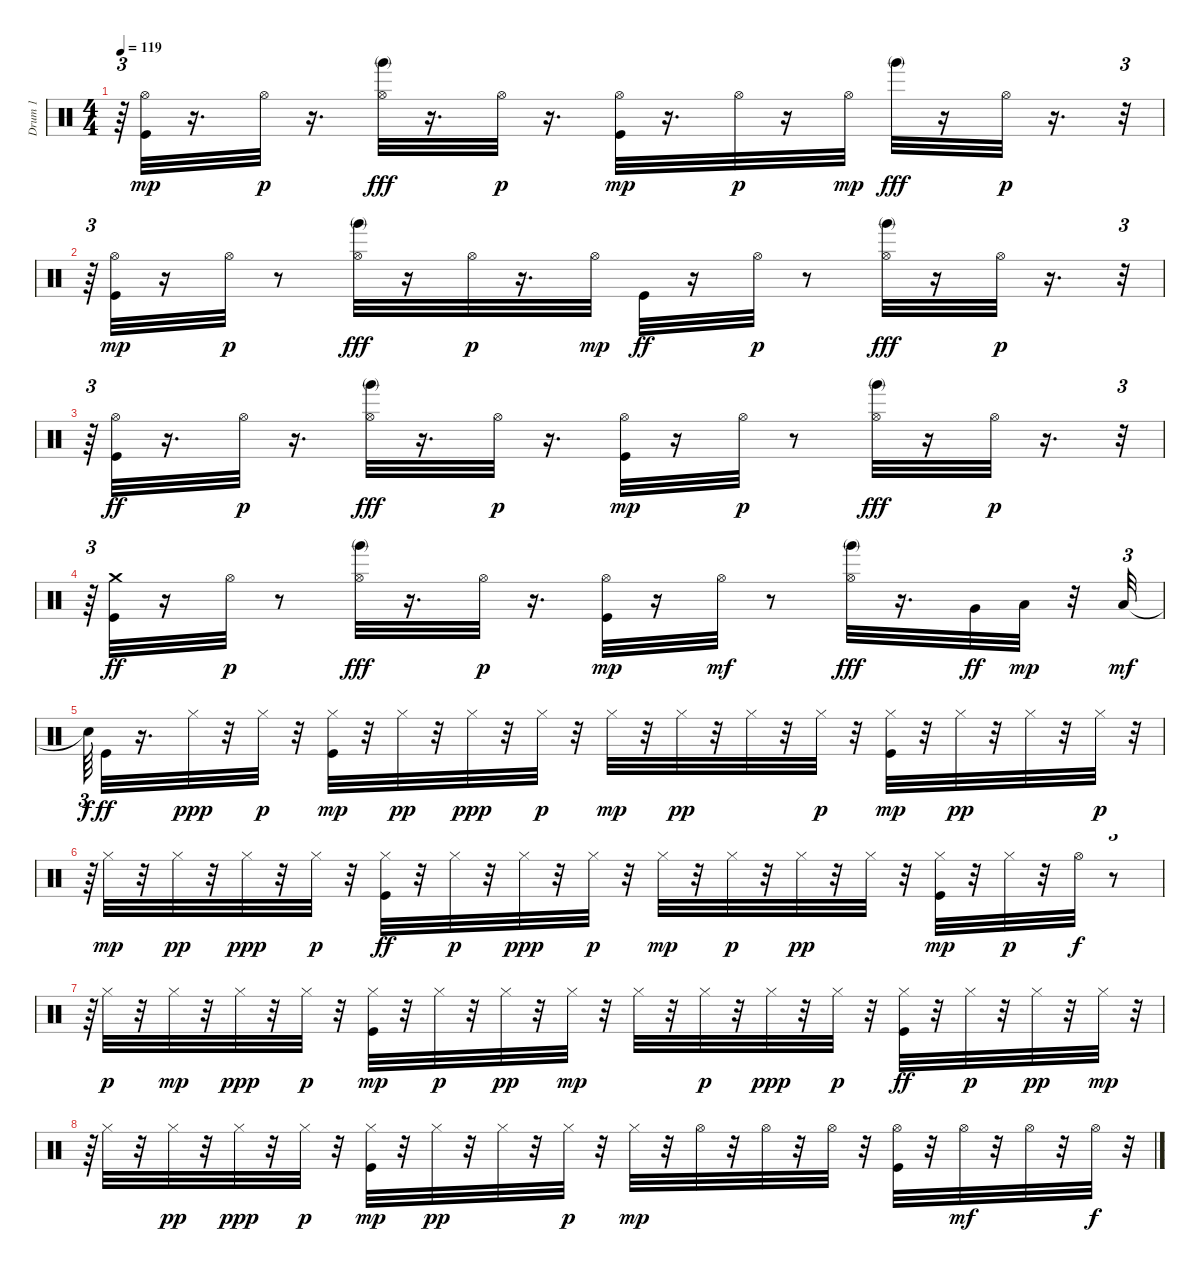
\track ("Drum 1                          " "Drum 1    ") {instrument percussion}
\staff {score}
\articulation defaults
\ts (4 4)
\tempo 119
\clef neutral
\ks c
r.64{tu (3 2) dy p} ("Kick (hit)" "Hi-Hat (open)").32{dy mp} r.16{d} "Hi-Hat (open)".32{dy p} r.16{d} ("Hi-Hat (open)" "Hand (mute) 2").32{dy fff} r.16{d} "Hi-Hat (open)".32{dy p} r.16{d} ("Kick (hit)" "Hi-Hat (open)").32{dy mp} r.16{d} "Hi-Hat (open)".32{dy p} r.16 "Hi-Hat (open)".32{dy mp} "Hand (mute) 2".32{dy fff} r.16 "Hi-Hat (open)".32{dy p} r.16{d} r.32{tu (3 2)} |
r.64{tu (3 2)} ("Kick (hit)" "Hi-Hat (open)").32{dy mp} r.16 "Hi-Hat (open)".32{dy p} r.8 ("Hi-Hat (open)" "Hand (mute) 2").32{dy fff} r.16 "Hi-Hat (open)".32{dy p} r.16{d} "Hi-Hat (open)".32{dy mp} "Kick (hit)".32{dy ff} r.16 "Hi-Hat (open)".32{dy p} r.8 ("Hi-Hat (open)" "Hand (mute) 2").32{dy fff} r.16 "Hi-Hat (open)".32{dy p} r.16{d} r.32{tu (3 2)} |
r.64{tu (3 2)} ("Hi-Hat (open)" "Kick (hit)").32{dy ff} r.16{d} "Hi-Hat (open)".32{dy p} r.16{d} ("Hi-Hat (open)" "Hand (mute) 2").32{dy fff} r.16{d} "Hi-Hat (open)".32{dy p} r.16{d} ("Kick (hit)" "Hi-Hat (open)").32{dy mp} r.16 "Hi-Hat (open)".32{dy p} r.8 ("Hi-Hat (open)" "Hand (mute) 2").32{dy fff} r.16 "Hi-Hat (open)".32{dy p} r.16{d} r.32{tu (3 2)} |
r.64{tu (3 2)} ("Crash medium (hit)" "Kick (hit)").32{dy ff} r.16 "Hi-Hat (open)".32{dy p} r.8 ("Hi-Hat (open)" "Hand (mute) 2").32{dy fff} r.16{d} "Hi-Hat (open)".32{dy p} r.16{d} ("Kick (hit)" "Hi-Hat (open)").32{dy mp} r.16 "Hi-Hat (open)".32{dy mf} r.8 ("Hi-Hat (open)" "Hand (mute) 2").32{dy fff} r.16{d} "Very Low Tom (hit)".32{dy ff} "Low Tom (hit)".32{dy mp} r.32 "Low Floor Tom (hit)".32{tu (3 2) dy mf} |
"Snare (hit)"{t}.64{tu (3 2) dy f} "Kick (hit)".32{dy ff} r.16{d} "Hi-Hat (closed)".32{dy ppp} r.32 "Hi-Hat (closed)".32{dy p} r.32 ("Kick (hit)" "Hi-Hat (closed)").32{dy mp} r.32 "Hi-Hat (closed)".32{dy pp} r.32 "Hi-Hat (closed)".32{dy ppp} r.32 "Hi-Hat (closed)".32{dy p} r.32 "Hi-Hat (closed)".32{dy mp} r.32 "Hi-Hat (closed)".32{dy pp} r.32 "Hi-Hat (closed)".32 r.32 "Hi-Hat (closed)".32{dy p} r.32 ("Kick (hit)" "Hi-Hat (closed)").32{dy mp} r.32 "Hi-Hat (closed)".32{dy pp} r.32 "Hi-Hat (closed)".32 r.32 "Hi-Hat (closed)".32{dy p} r.32{tu (3 2)} |
r.64{tu (3 2)} "Hi-Hat (closed)".32{dy mp} r.32 "Hi-Hat (closed)".32{dy pp} r.32 "Hi-Hat (closed)".32{dy ppp} r.32 "Hi-Hat (closed)".32{dy p} r.32 ("Hi-Hat (closed)" "Kick (hit)").32{dy ff} r.32 "Hi-Hat (closed)".32{dy p} r.32 "Hi-Hat (closed)".32{dy ppp} r.32 "Hi-Hat (closed)".32{dy p} r.32 "Hi-Hat (closed)".32{dy mp} r.32 "Hi-Hat (closed)".32{dy p} r.32 "Hi-Hat (closed)".32{dy pp} r.32 "Hi-Hat (closed)".32 r.32 ("Kick (hit)" "Hi-Hat (closed)").32{dy mp} r.32 "Hi-Hat (closed)".32{dy p} r.32 "Hi-Hat (open)".32{dy f} r.8{tu (3 2)} |
r.64{tu (3 2)} "Hi-Hat (closed)".32{dy p} r.32 "Hi-Hat (closed)".32{dy mp} r.32 "Hi-Hat (closed)".32{dy ppp} r.32 "Hi-Hat (closed)".32{dy p} r.32 ("Kick (hit)" "Hi-Hat (closed)").32{dy mp} r.32 "Hi-Hat (closed)".32{dy p} r.32 "Hi-Hat (closed)".32{dy pp} r.32 "Hi-Hat (closed)".32{dy mp} r.32 "Hi-Hat (closed)".32 r.32 "Hi-Hat (closed)".32{dy p} r.32 "Hi-Hat (closed)".32{dy ppp} r.32 "Hi-Hat (closed)".32{dy p} r.32 ("Hi-Hat (closed)" "Kick (hit)").32{dy ff} r.32 "Hi-Hat (closed)".32{dy p} r.32 "Hi-Hat (closed)".32{dy pp} r.32 "Hi-Hat (closed)".32{dy mp} r.32{tu (3 2)} |
r.64{tu (3 2)} "Hi-Hat (closed)".32 r.32 "Hi-Hat (closed)".32{dy pp} r.32 "Hi-Hat (closed)".32{dy ppp} r.32 "Hi-Hat (closed)".32{dy p} r.32 ("Kick (hit)" "Hi-Hat (closed)").32{dy mp} r.32 "Hi-Hat (closed)".32{dy pp} r.32 "Hi-Hat (closed)".32 r.32 "Hi-Hat (closed)".32{dy p} r.32 "Hi-Hat (closed)".32{dy mp} r.32 "Hi-Hat (open)".32 r.32 "Hi-Hat (open)".32 r.32 "Hi-Hat (open)".32 r.32 ("Kick (hit)" "Hi-Hat (open)").32 r.32 "Hi-Hat (open)".32{dy mf} r.32 "Hi-Hat (open)".32 r.32 "Hi-Hat (open)".32{dy f} r.32{tu (3 2)}
